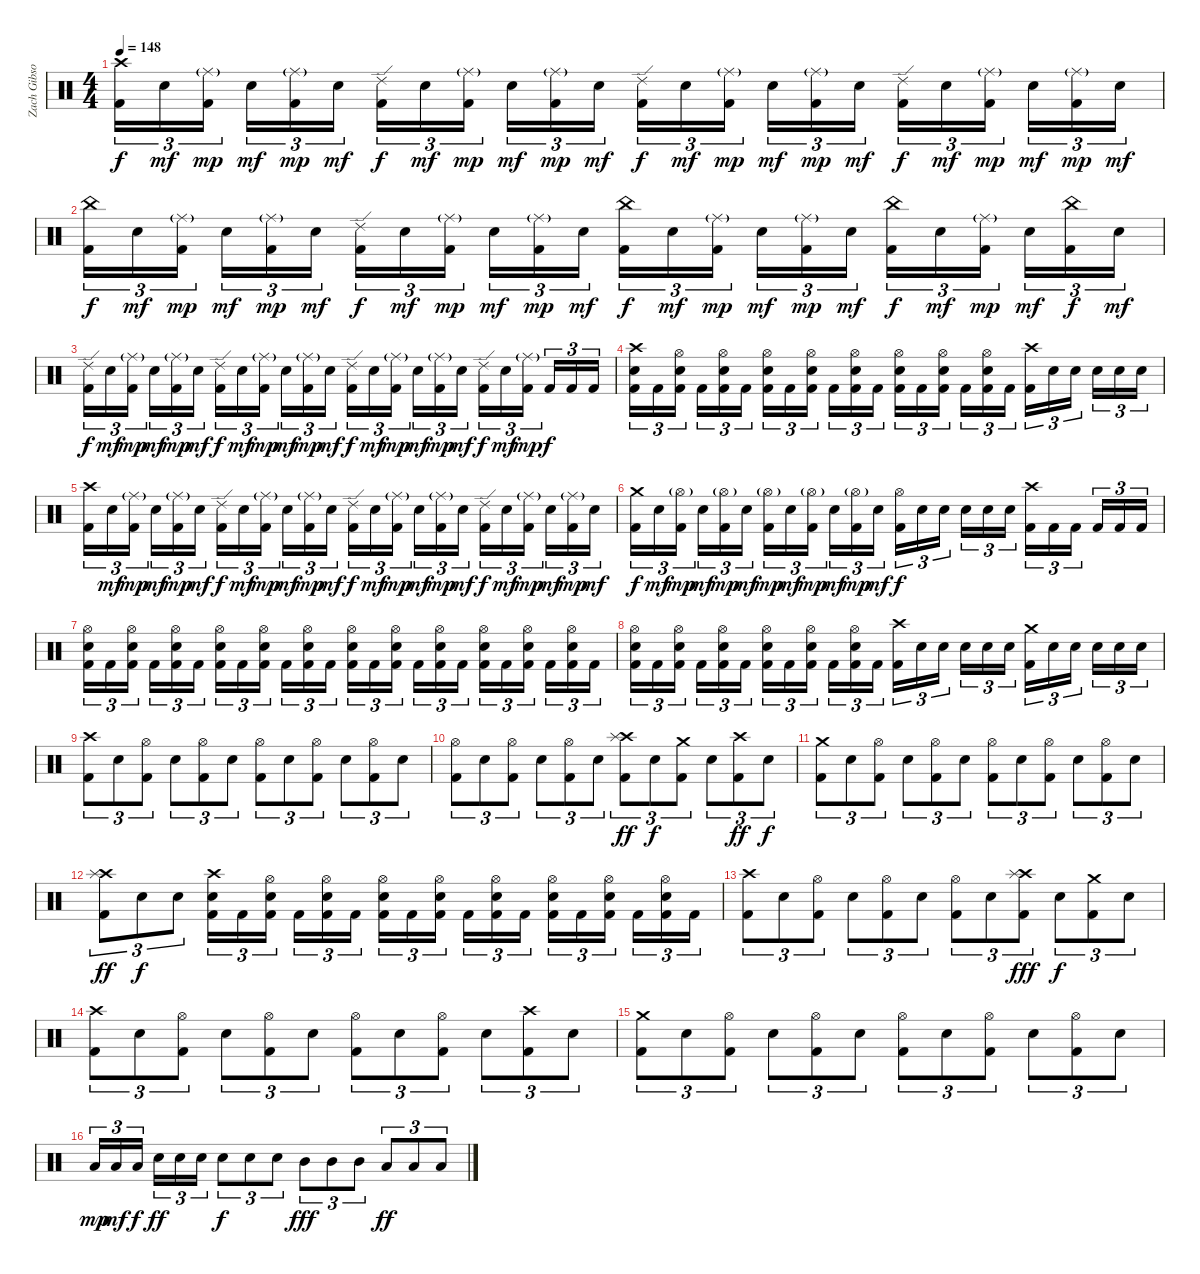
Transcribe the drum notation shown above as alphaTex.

\track ("Zach Gibson (Ex-Drums)" "Zach Gibso") {instrument percussion}
\staff {score}
\articulation defaults
\ts (4 4)
\tempo 148
\clef neutral
\ks c
("Crash high (hit)" "Kick (hit) 2").16{tu (3 2) dy f} "Snare (hit) 2".16{tu (3 2) dy mf} ("Ride (middle)"{g} "Kick (hit) 2").16{tu (3 2) dy mp} "Snare (hit) 2".16{tu (3 2) dy mf} ("Ride (middle)"{g} "Kick (hit) 2").16{tu (3 2) dy mp} "Snare (hit) 2".16{tu (3 2) dy mf} ("Ride (edge) 2" "Kick (hit) 2").16{tu (3 2) dy f} "Snare (hit) 2".16{tu (3 2) dy mf} ("Ride (middle)"{g} "Kick (hit) 2").16{tu (3 2) dy mp} "Snare (hit) 2".16{tu (3 2) dy mf} ("Ride (middle)"{g} "Kick (hit) 2").16{tu (3 2) dy mp} "Snare (hit) 2".16{tu (3 2) dy mf} ("Ride (edge) 2" "Kick (hit) 2").16{tu (3 2) dy f} "Snare (hit) 2".16{tu (3 2) dy mf} ("Ride (middle)"{g} "Kick (hit) 2").16{tu (3 2) dy mp} "Snare (hit) 2".16{tu (3 2) dy mf} ("Ride (middle)"{g} "Kick (hit) 2").16{tu (3 2) dy mp} "Snare (hit) 2".16{tu (3 2) dy mf} ("Ride (edge) 2" "Kick (hit) 2").16{tu (3 2) dy f} "Snare (hit) 2".16{tu (3 2) dy mf} ("Ride (middle)"{g} "Kick (hit) 2").16{tu (3 2) dy mp} "Snare (hit) 2".16{tu (3 2) dy mf} ("Ride (middle)"{g} "Kick (hit) 2").16{tu (3 2) dy mp} "Snare (hit) 2".16{tu (3 2) dy mf} |
("China (hit)" "Kick (hit) 2").16{tu (3 2) dy f} "Snare (hit) 2".16{tu (3 2) dy mf} ("Ride (middle)"{g} "Kick (hit) 2").16{tu (3 2) dy mp} "Snare (hit) 2".16{tu (3 2) dy mf} ("Ride (middle)"{g} "Kick (hit) 2").16{tu (3 2) dy mp} "Snare (hit) 2".16{tu (3 2) dy mf} ("Ride (edge) 2" "Kick (hit) 2").16{tu (3 2) dy f} "Snare (hit) 2".16{tu (3 2) dy mf} ("Ride (middle)"{g} "Kick (hit) 2").16{tu (3 2) dy mp} "Snare (hit) 2".16{tu (3 2) dy mf} ("Ride (middle)"{g} "Kick (hit) 2").16{tu (3 2) dy mp} "Snare (hit) 2".16{tu (3 2) dy mf} ("China (hit)" "Kick (hit) 2").16{tu (3 2) dy f} "Snare (hit) 2".16{tu (3 2) dy mf} ("Ride (middle)"{g} "Kick (hit) 2").16{tu (3 2) dy mp} "Snare (hit) 2".16{tu (3 2) dy mf} ("Ride (middle)"{g} "Kick (hit) 2").16{tu (3 2) dy mp} "Snare (hit) 2".16{tu (3 2) dy mf} ("China (hit)" "Kick (hit) 2").16{tu (3 2) dy f} "Snare (hit) 2".16{tu (3 2) dy mf} ("Ride (middle)"{g} "Kick (hit) 2").16{tu (3 2) dy mp} "Snare (hit) 2".16{tu (3 2) dy mf} ("China (hit)" "Kick (hit) 2").16{tu (3 2) dy f} "Snare (hit) 2".16{tu (3 2) dy mf} |
("Ride (edge) 2" "Kick (hit) 2").16{tu (3 2) dy f} "Snare (hit) 2".16{tu (3 2) dy mf} ("Ride (middle)"{g} "Kick (hit) 2").16{tu (3 2) dy mp} "Snare (hit) 2".16{tu (3 2) dy mf} ("Ride (middle)"{g} "Kick (hit) 2").16{tu (3 2) dy mp} "Snare (hit) 2".16{tu (3 2) dy mf} ("Ride (edge) 2" "Kick (hit) 2").16{tu (3 2) dy f} "Snare (hit) 2".16{tu (3 2) dy mf} ("Ride (middle)"{g} "Kick (hit) 2").16{tu (3 2) dy mp} "Snare (hit) 2".16{tu (3 2) dy mf} ("Ride (middle)"{g} "Kick (hit) 2").16{tu (3 2) dy mp} "Snare (hit) 2".16{tu (3 2) dy mf} ("Ride (edge) 2" "Kick (hit) 2").16{tu (3 2) dy f} "Snare (hit) 2".16{tu (3 2) dy mf} ("Ride (middle)"{g} "Kick (hit) 2").16{tu (3 2) dy mp} "Snare (hit) 2".16{tu (3 2) dy mf} ("Ride (middle)"{g} "Kick (hit) 2").16{tu (3 2) dy mp} "Snare (hit) 2".16{tu (3 2) dy mf} ("Ride (edge) 2" "Kick (hit) 2").16{tu (3 2) dy f} "Snare (hit) 2".16{tu (3 2) dy mf} ("Ride (middle)"{g} "Kick (hit) 2").16{tu (3 2) dy mp} "Kick (hit) 2".16{tu (3 2) dy f} "Kick (hit) 2".16{tu (3 2)} "Kick (hit) 2".16{tu (3 2)} |
("Crash high (hit)" "Snare (hit) 2" "Kick (hit) 2").16{tu (3 2)} "Kick (hit) 2".16{tu (3 2)} ("Hi-Hat (open)" "Snare (hit) 2" "Kick (hit) 2").16{tu (3 2)} "Kick (hit) 2".16{tu (3 2)} ("Hi-Hat (open)" "Snare (hit) 2" "Kick (hit) 2").16{tu (3 2)} "Kick (hit) 2".16{tu (3 2)} ("Hi-Hat (open)" "Snare (hit) 2" "Kick (hit) 2").16{tu (3 2)} "Kick (hit) 2".16{tu (3 2)} ("Hi-Hat (open)" "Snare (hit) 2" "Kick (hit) 2").16{tu (3 2)} "Kick (hit) 2".16{tu (3 2)} ("Hi-Hat (open)" "Snare (hit) 2" "Kick (hit) 2").16{tu (3 2)} "Kick (hit) 2".16{tu (3 2)} ("Hi-Hat (open)" "Snare (hit) 2" "Kick (hit) 2").16{tu (3 2)} "Kick (hit) 2".16{tu (3 2)} ("Hi-Hat (open)" "Snare (hit) 2" "Kick (hit) 2").16{tu (3 2)} "Kick (hit) 2".16{tu (3 2)} ("Hi-Hat (open)" "Snare (hit) 2" "Kick (hit) 2").16{tu (3 2)} "Kick (hit) 2".16{tu (3 2)} ("Crash high (hit)" "Kick (hit) 2").16{tu (3 2)} "Snare (hit) 2".16{tu (3 2)} "Snare (hit) 2".16{tu (3 2)} "Snare (hit) 2".16{tu (3 2)} "Snare (hit) 2".16{tu (3 2)} "Snare (hit) 2".16{tu (3 2)} |
("Crash high (hit)" "Kick (hit) 2").16{tu (3 2)} "Snare (hit) 2".16{tu (3 2) dy mf} ("Ride (middle)"{g} "Kick (hit) 2").16{tu (3 2) dy mp} "Snare (hit) 2".16{tu (3 2) dy mf} ("Ride (middle)"{g} "Kick (hit) 2").16{tu (3 2) dy mp} "Snare (hit) 2".16{tu (3 2) dy mf} ("Ride (edge) 2" "Kick (hit) 2").16{tu (3 2) dy f} "Snare (hit) 2".16{tu (3 2) dy mf} ("Ride (middle)"{g} "Kick (hit) 2").16{tu (3 2) dy mp} "Snare (hit) 2".16{tu (3 2) dy mf} ("Ride (middle)"{g} "Kick (hit) 2").16{tu (3 2) dy mp} "Snare (hit) 2".16{tu (3 2) dy mf} ("Ride (edge) 2" "Kick (hit) 2").16{tu (3 2) dy f} "Snare (hit) 2".16{tu (3 2) dy mf} ("Ride (middle)"{g} "Kick (hit) 2").16{tu (3 2) dy mp} "Snare (hit) 2".16{tu (3 2) dy mf} ("Ride (middle)"{g} "Kick (hit) 2").16{tu (3 2) dy mp} "Snare (hit) 2".16{tu (3 2) dy mf} ("Ride (edge) 2" "Kick (hit) 2").16{tu (3 2) dy f} "Snare (hit) 2".16{tu (3 2) dy mf} ("Ride (middle)"{g} "Kick (hit) 2").16{tu (3 2) dy mp} "Snare (hit) 2".16{tu (3 2) dy mf} ("Ride (middle)"{g} "Kick (hit) 2").16{tu (3 2) dy mp} "Snare (hit) 2".16{tu (3 2) dy mf} |
("Crash medium (hit)" "Kick (hit) 2").16{tu (3 2) dy f} "Snare (hit) 2".16{tu (3 2) dy mf} ("Hi-Hat (open)"{g} "Kick (hit) 2").16{tu (3 2) dy mp} "Snare (hit) 2".16{tu (3 2) dy mf} ("Hi-Hat (open)"{g} "Kick (hit) 2").16{tu (3 2) dy mp} "Snare (hit) 2".16{tu (3 2) dy mf} ("Hi-Hat (open)"{g} "Kick (hit) 2").16{tu (3 2) dy mp} "Snare (hit) 2".16{tu (3 2) dy mf} ("Hi-Hat (open)"{g} "Kick (hit) 2").16{tu (3 2) dy mp} "Snare (hit) 2".16{tu (3 2) dy mf} ("Hi-Hat (open)"{g} "Kick (hit) 2").16{tu (3 2) dy mp} "Snare (hit) 2".16{tu (3 2) dy mf} ("Hi-Hat (open)" "Kick (hit) 2").16{tu (3 2) dy f} "Snare (hit) 2".16{tu (3 2)} "Snare (hit) 2".16{tu (3 2)} "Snare (hit) 2".16{tu (3 2)} "Snare (hit) 2".16{tu (3 2)} "Snare (hit) 2".16{tu (3 2)} ("Crash high (hit)" "Kick (hit) 2").16{tu (3 2)} "Kick (hit) 2".16{tu (3 2)} "Kick (hit) 2".16{tu (3 2)} "Kick (hit) 2".16{tu (3 2)} "Kick (hit) 2".16{tu (3 2)} "Kick (hit) 2".16{tu (3 2)} |
("Hi-Hat (open)" "Snare (hit) 2" "Kick (hit) 2").16{tu (3 2)} "Kick (hit) 2".16{tu (3 2)} ("Hi-Hat (open)" "Snare (hit) 2" "Kick (hit) 2").16{tu (3 2)} "Kick (hit) 2".16{tu (3 2)} ("Hi-Hat (open)" "Snare (hit) 2" "Kick (hit) 2").16{tu (3 2)} "Kick (hit) 2".16{tu (3 2)} ("Hi-Hat (open)" "Snare (hit) 2" "Kick (hit) 2").16{tu (3 2)} "Kick (hit) 2".16{tu (3 2)} ("Hi-Hat (open)" "Snare (hit) 2" "Kick (hit) 2").16{tu (3 2)} "Kick (hit) 2".16{tu (3 2)} ("Hi-Hat (open)" "Snare (hit) 2" "Kick (hit) 2").16{tu (3 2)} "Kick (hit) 2".16{tu (3 2)} ("Hi-Hat (open)" "Snare (hit) 2" "Kick (hit) 2").16{tu (3 2)} "Kick (hit) 2".16{tu (3 2)} ("Hi-Hat (open)" "Snare (hit) 2" "Kick (hit) 2").16{tu (3 2)} "Kick (hit) 2".16{tu (3 2)} ("Hi-Hat (open)" "Snare (hit) 2" "Kick (hit) 2").16{tu (3 2)} "Kick (hit) 2".16{tu (3 2)} ("Hi-Hat (open)" "Snare (hit) 2" "Kick (hit) 2").16{tu (3 2)} "Kick (hit) 2".16{tu (3 2)} ("Hi-Hat (open)" "Snare (hit) 2" "Kick (hit) 2").16{tu (3 2)} "Kick (hit) 2".16{tu (3 2)} ("Hi-Hat (open)" "Snare (hit) 2" "Kick (hit) 2").16{tu (3 2)} "Kick (hit) 2".16{tu (3 2)} |
("Hi-Hat (open)" "Snare (hit) 2" "Kick (hit) 2").16{tu (3 2)} "Kick (hit) 2".16{tu (3 2)} ("Hi-Hat (open)" "Snare (hit) 2" "Kick (hit) 2").16{tu (3 2)} "Kick (hit) 2".16{tu (3 2)} ("Hi-Hat (open)" "Snare (hit) 2" "Kick (hit) 2").16{tu (3 2)} "Kick (hit) 2".16{tu (3 2)} ("Hi-Hat (open)" "Snare (hit) 2" "Kick (hit) 2").16{tu (3 2)} "Kick (hit) 2".16{tu (3 2)} ("Hi-Hat (open)" "Snare (hit) 2" "Kick (hit) 2").16{tu (3 2)} "Kick (hit) 2".16{tu (3 2)} ("Hi-Hat (open)" "Snare (hit) 2" "Kick (hit) 2").16{tu (3 2)} "Kick (hit) 2".16{tu (3 2)} ("Crash high (hit)" "Kick (hit) 2").16{tu (3 2)} "Snare (hit) 2".16{tu (3 2)} "Snare (hit) 2".16{tu (3 2)} "Snare (hit) 2".16{tu (3 2)} "Snare (hit) 2".16{tu (3 2)} "Snare (hit) 2".16{tu (3 2)} ("Crash medium (hit)" "Kick (hit) 2").16{tu (3 2)} "Snare (hit) 2".16{tu (3 2)} "Snare (hit) 2".16{tu (3 2)} "Snare (hit) 2".16{tu (3 2)} "Snare (hit) 2".16{tu (3 2)} "Snare (hit) 2".16{tu (3 2)} |
("Crash high (hit)" "Kick (hit) 2").8{tu (3 2)} "Snare (hit) 2".8{tu (3 2)} ("Hi-Hat (open)" "Kick (hit) 2").8{tu (3 2)} "Snare (hit) 2".8{tu (3 2)} ("Hi-Hat (open)" "Kick (hit) 2").8{tu (3 2)} "Snare (hit) 2".8{tu (3 2)} ("Hi-Hat (open)" "Kick (hit) 2").8{tu (3 2)} "Snare (hit) 2".8{tu (3 2)} ("Hi-Hat (open)" "Kick (hit) 2").8{tu (3 2)} "Snare (hit) 2".8{tu (3 2)} ("Hi-Hat (open)" "Kick (hit) 2").8{tu (3 2)} "Snare (hit) 2".8{tu (3 2)} |
("Hi-Hat (open)" "Kick (hit) 2").8{tu (3 2)} "Snare (hit) 2".8{tu (3 2)} ("Hi-Hat (open)" "Kick (hit) 2").8{tu (3 2)} "Snare (hit) 2".8{tu (3 2)} ("Hi-Hat (open)" "Kick (hit) 2").8{tu (3 2)} "Snare (hit) 2".8{tu (3 2)} ("Crash high (hit)" "Splash (hit)" "Kick (hit) 2").8{tu (3 2) dy ff} "Snare (hit) 2".8{tu (3 2) dy f} ("Crash medium (hit)" "Kick (hit) 2").8{tu (3 2)} "Snare (hit) 2".8{tu (3 2)} ("Crash high (hit)" "Kick (hit) 2").8{tu (3 2) dy ff} "Snare (hit) 2".8{tu (3 2) dy f} |
("Crash medium (hit)" "Kick (hit) 2").8{tu (3 2)} "Snare (hit) 2".8{tu (3 2)} ("Hi-Hat (open)" "Kick (hit) 2").8{tu (3 2)} "Snare (hit) 2".8{tu (3 2)} ("Hi-Hat (open)" "Kick (hit) 2").8{tu (3 2)} "Snare (hit) 2".8{tu (3 2)} ("Hi-Hat (open)" "Kick (hit) 2").8{tu (3 2)} "Snare (hit) 2".8{tu (3 2)} ("Hi-Hat (open)" "Kick (hit) 2").8{tu (3 2)} "Snare (hit) 2".8{tu (3 2)} ("Hi-Hat (open)" "Kick (hit) 2").8{tu (3 2)} "Snare (hit) 2".8{tu (3 2)} |
("Crash high (hit)" "Splash (hit)" "Kick (hit) 2").8{tu (3 2) dy ff} "Snare (hit) 2".8{tu (3 2) dy f} "Snare (hit) 2".8{tu (3 2)} ("Crash high (hit)" "Snare (hit) 2" "Kick (hit) 2").16{tu (3 2)} "Kick (hit) 2".16{tu (3 2)} ("Hi-Hat (open)" "Snare (hit) 2" "Kick (hit) 2").16{tu (3 2)} "Kick (hit) 2".16{tu (3 2)} ("Hi-Hat (open)" "Snare (hit) 2" "Kick (hit) 2").16{tu (3 2)} "Kick (hit) 2".16{tu (3 2)} ("Hi-Hat (open)" "Snare (hit) 2" "Kick (hit) 2").16{tu (3 2)} "Kick (hit) 2".16{tu (3 2)} ("Hi-Hat (open)" "Snare (hit) 2" "Kick (hit) 2").16{tu (3 2)} "Kick (hit) 2".16{tu (3 2)} ("Hi-Hat (open)" "Snare (hit) 2" "Kick (hit) 2").16{tu (3 2)} "Kick (hit) 2".16{tu (3 2)} ("Hi-Hat (open)" "Snare (hit) 2" "Kick (hit) 2").16{tu (3 2)} "Kick (hit) 2".16{tu (3 2)} ("Hi-Hat (open)" "Snare (hit) 2" "Kick (hit) 2").16{tu (3 2)} "Kick (hit) 2".16{tu (3 2)} ("Hi-Hat (open)" "Snare (hit) 2" "Kick (hit) 2").16{tu (3 2)} "Kick (hit) 2".16{tu (3 2)} |
("Crash high (hit)" "Kick (hit) 2").8{tu (3 2)} "Snare (hit) 2".8{tu (3 2)} ("Hi-Hat (open)" "Kick (hit) 2").8{tu (3 2)} "Snare (hit) 2".8{tu (3 2)} ("Hi-Hat (open)" "Kick (hit) 2").8{tu (3 2)} "Snare (hit) 2".8{tu (3 2)} ("Hi-Hat (open)" "Kick (hit) 2").8{tu (3 2)} "Snare (hit) 2".8{tu (3 2)} ("Crash high (hit)" "Splash (hit)" "Kick (hit) 2").8{tu (3 2) dy fff} "Snare (hit) 2".8{tu (3 2) dy f} ("Crash medium (hit)" "Kick (hit) 2").8{tu (3 2)} "Snare (hit) 2".8{tu (3 2)} |
("Crash high (hit)" "Kick (hit) 2").8{tu (3 2)} "Snare (hit) 2".8{tu (3 2)} ("Hi-Hat (open)" "Kick (hit) 2").8{tu (3 2)} "Snare (hit) 2".8{tu (3 2)} ("Hi-Hat (open)" "Kick (hit) 2").8{tu (3 2)} "Snare (hit) 2".8{tu (3 2)} ("Hi-Hat (open)" "Kick (hit) 2").8{tu (3 2)} "Snare (hit) 2".8{tu (3 2)} ("Hi-Hat (open)" "Kick (hit) 2").8{tu (3 2)} "Snare (hit) 2".8{tu (3 2)} ("Crash high (hit)" "Kick (hit) 2").8{tu (3 2)} "Snare (hit) 2".8{tu (3 2)} |
("Crash medium (hit)" "Kick (hit) 2").8{tu (3 2)} "Snare (hit) 2".8{tu (3 2)} ("Hi-Hat (open)" "Kick (hit) 2").8{tu (3 2)} "Snare (hit) 2".8{tu (3 2)} ("Hi-Hat (open)" "Kick (hit) 2").8{tu (3 2)} "Snare (hit) 2".8{tu (3 2)} ("Hi-Hat (open)" "Kick (hit) 2").8{tu (3 2)} "Snare (hit) 2".8{tu (3 2)} ("Hi-Hat (open)" "Kick (hit) 2").8{tu (3 2)} "Snare (hit) 2".8{tu (3 2)} ("Hi-Hat (open)" "Kick (hit) 2").8{tu (3 2)} "Snare (hit) 2".8{tu (3 2)} |
"Low Tom (hit)".16{tu (3 2) dy mp} "Low Tom (hit)".16{tu (3 2) dy mf} "Low Tom (hit)".16{tu (3 2) dy f} "Snare (hit) 2".16{tu (3 2) dy ff} "Snare (hit) 2".16{tu (3 2)} "Snare (hit) 2".16{tu (3 2)} "Snare (hit) 2".8{tu (3 2) dy f} "Snare (hit) 2".8{tu (3 2)} "Snare (hit) 2".8{tu (3 2)} "Mid Tom (hit)".8{tu (3 2) dy fff} "Mid Tom (hit)".8{tu (3 2)} "Mid Tom (hit)".8{tu (3 2)} "Low Tom (hit)".8{tu (3 2) dy ff} "Low Tom (hit)".8{tu (3 2)} "Low Tom (hit)".8{tu (3 2)}
